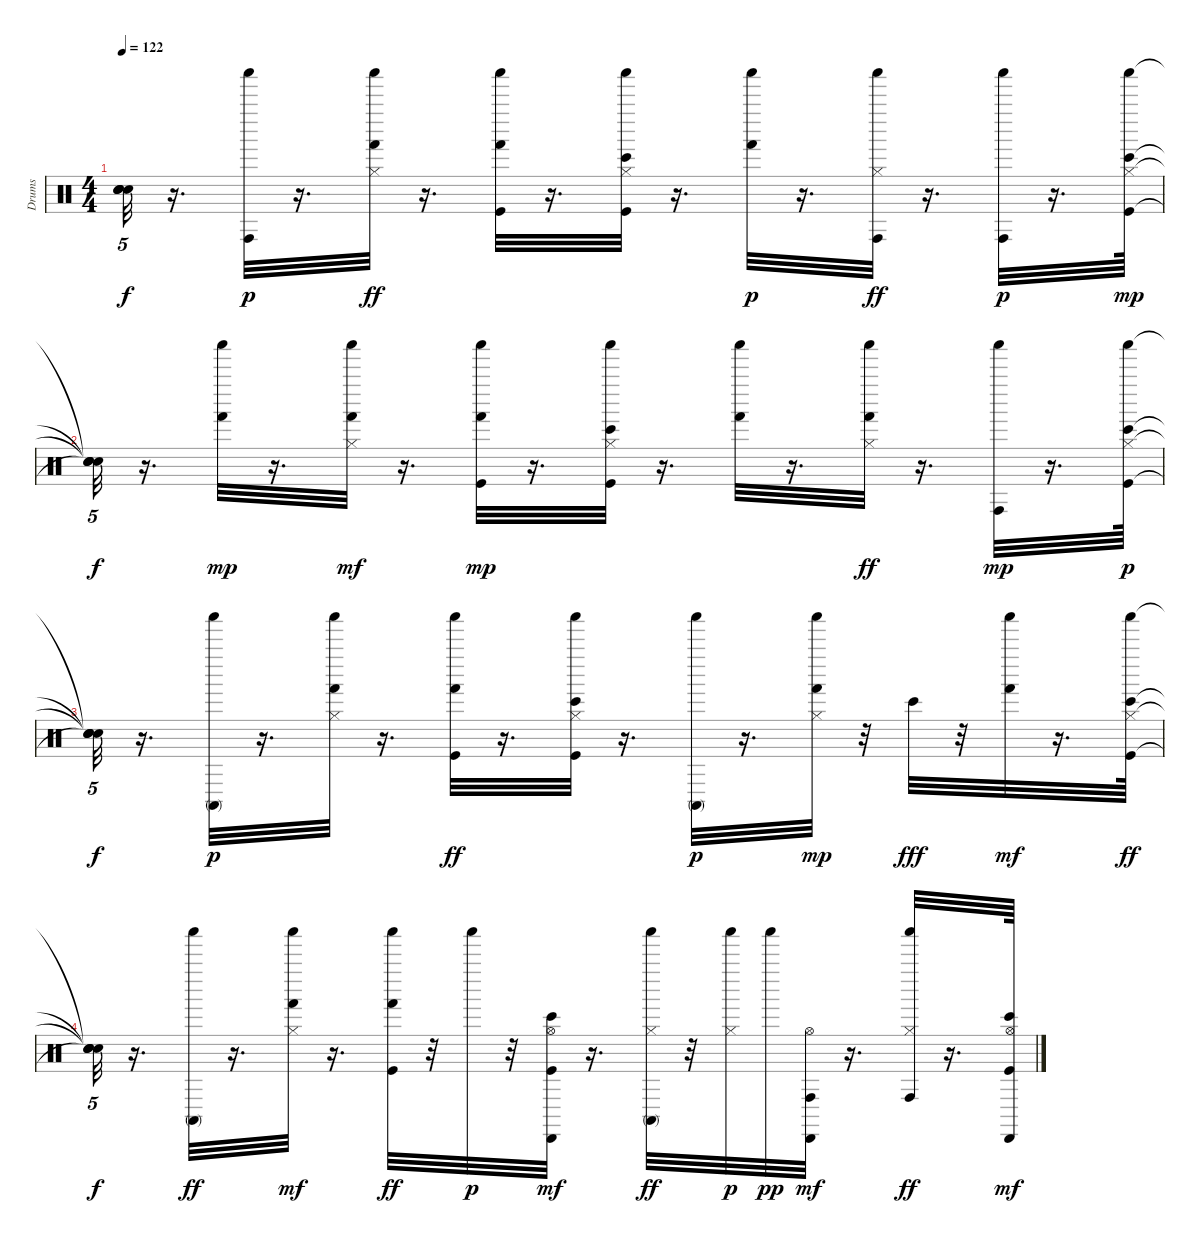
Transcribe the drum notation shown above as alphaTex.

\track ("Drums" "Drums") {instrument percussion}
\staff {score}
\articulation defaults
\ts (4 4)
\tempo 122
\clef neutral
\ks c
("Snare (hit)"{t} "Snare (hit)"{t} "Snare (hit)"{t} "Snare (hit)"{t}).32{tu (5 4) dy f} r.16{d} ("Conga high (hit)" "Shaker (hit)").32{dy p} r.16{d} ("Shaker (hit)" "Hi-Hat (closed)" "Hand (hit)").32{dy ff} r.16{d} ("Shaker (hit)" "Kick (hit)" "Hand (hit)").32 r.16{d} ("Shaker (hit)" "Kick (hit)" "Hi-Hat (closed)" "Bongo High (hit)").32 r.16{d} ("Shaker (hit)" "Hand (hit)").32{dy p} r.16{d} ("Shaker (hit)" "Hi-Hat (closed)" "Conga high (hit)").32{dy ff} r.16{d} ("Shaker (hit)" "Conga high (hit)").32{dy p} r.16{d} ("Kick (hit)" "Hi-Hat (closed)" "Bongo High (hit)" "Shaker (hit)").64{dy mp} |
("Snare (hit)"{t} "Snare (hit)"{t} "Snare (hit)"{t} "Snare (hit)"{t}).32{tu (5 4) dy f} r.16{d} ("Shaker (hit)" "Hand (hit)").32{dy mp} r.16{d} ("Shaker (hit)" "Hi-Hat (closed)" "Hand (hit)").32{dy mf} r.16{d} ("Shaker (hit)" "Kick (hit)" "Hand (hit)").32{dy mp} r.16{d} ("Bongo High (hit)" "Shaker (hit)" "Kick (hit)" "Hi-Hat (closed)").32 r.16{d} ("Shaker (hit)" "Hand (hit)").32 r.16{d} ("Shaker (hit)" "Hi-Hat (closed)" "Hand (hit)").32{dy ff} r.16{d} ("Shaker (hit)" "Conga high (hit)").32{dy mp} r.16{d} ("Kick (hit)" "Hi-Hat (closed)" "Bongo High (hit)" "Shaker (hit)").64{dy p} |
("Snare (hit)"{t} "Snare (hit)"{t} "Snare (hit)"{t} "Snare (hit)"{t}).32{tu (5 4) dy f} r.16{d} ("Conga high (mute)" "Shaker (hit)").32{dy p} r.16{d} ("Shaker (hit)" "Hi-Hat (closed)" "Hand (hit)").32 r.16{d} ("Shaker (hit)" "Kick (hit)" "Hand (hit)").32{dy ff} r.16{d} ("Shaker (hit)" "Kick (hit)" "Hi-Hat (closed)" "Bongo High (hit)").32 r.16{d} ("Shaker (hit)" "Conga high (mute)").32{dy p} r.16{d} ("Hi-Hat (closed)" "Hand (hit)" "Shaker (hit)").32{dy mp} r.32 "Bongo High (hit)".32{dy fff} r.32 ("Shaker (hit)" "Hand (hit)").32{dy mf} r.16{d} ("Shaker (hit)" "Kick (hit)" "Hi-Hat (closed)" "Bongo High (hit)").64{dy ff} |
("Snare (hit)"{t} "Snare (hit)"{t} "Snare (hit)"{t} "Snare (hit)"{t}).32{tu (5 4) dy f} r.16{d} ("Shaker (hit)" "Conga high (mute)").32{dy ff} r.16{d} ("Hi-Hat (closed)" "Shaker (hit)" "Hand (hit)").32{dy mf} r.16{d} ("Shaker (hit)" "Kick (hit)" "Hand (hit)").32{dy ff} r.32 "Shaker (hit)".32{dy p} r.32 ("Kick (hit)" "Hi-Hat (open)" "Bongo High (hit)" "Cabasa (hit)").32{dy mf} r.16{d} ("Shaker (hit)" "Hi-Hat (closed)" "Conga high (mute)").32{dy ff} r.32 ("Hi-Hat (closed)" "Shaker (hit)").32{dy p} "Shaker (hit)".32{dy pp} ("Hi-Hat (open)" "Conga high (hit)" "Cabasa (hit)").32{dy mf} r.16{d} ("Shaker (hit)" "Hi-Hat (closed)" "Conga high (hit)").32{dy ff} r.16{d} ("Bongo High (hit)" "Kick (hit)" "Hi-Hat (open)" "Cabasa (hit)").64{dy mf}
